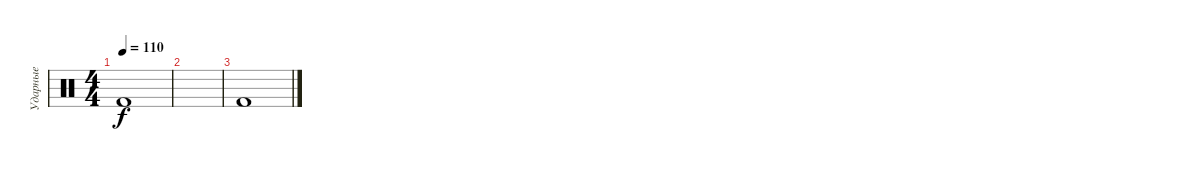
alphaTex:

\track ("Ударные" "Ударные") {instrument percussion}
\staff {score}
\articulation defaults
\ts (4 4)
\tempo 110
\clef neutral
\ks c "Kick (hit) 2".1{dy f}
|
|
"Kick (hit) 2".1
